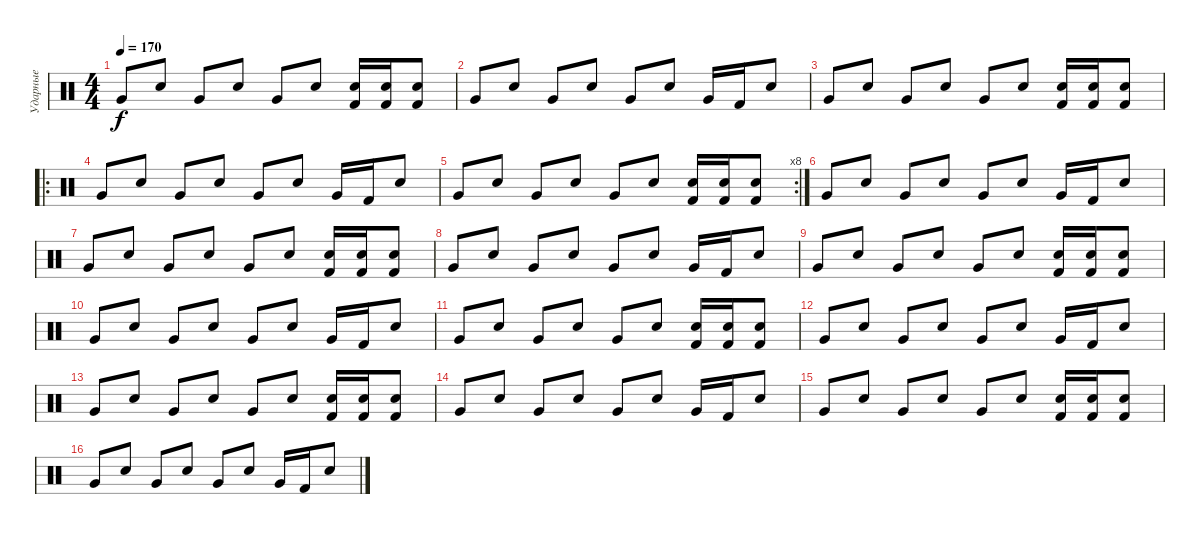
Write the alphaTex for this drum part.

\track ("Ударные" "Ударные") {instrument percussion bank 25}
\staff {score}
\articulation defaults
\ts (4 4)
\tempo 170
\clef neutral
\ks c "Very Low Tom (hit)".8{dy f} "Electric Snare (hit)".8 "Very Low Tom (hit)".8 "Electric Snare (hit)".8 "Very Low Tom (hit)".8 "Electric Snare (hit)".8
("Electric Snare (hit)" "Kick (hit) 2").16 ("Snare (hit) 2" "Kick (hit) 2").16 ("Electric Snare (hit)" "Kick (hit) 2").8 |
"Very Low Tom (hit)".8 "Electric Snare (hit)".8 "Very Low Tom (hit)".8 "Electric Snare (hit)".8 "Very Low Tom (hit)".8 "Electric Snare (hit)".8 "Very Low Tom (hit)".16 "Kick (hit) 2".16 "Electric Snare (hit)".8 |
"Very Low Tom (hit)".8 "Electric Snare (hit)".8 "Very Low Tom (hit)".8 "Electric Snare (hit)".8 "Very Low Tom (hit)".8 "Electric Snare (hit)".8 ("Electric Snare (hit)" "Kick (hit) 2").16 ("Snare (hit) 2" "Kick (hit) 2").16 ("Electric Snare (hit)" "Kick (hit) 2").8 |
\ro "Very Low Tom (hit)".8 "Electric Snare (hit)".8 "Very Low Tom (hit)".8 "Electric Snare (hit)".8 "Very Low Tom (hit)".8 "Electric Snare (hit)".8 "Very Low Tom (hit)".16 "Kick (hit) 2".16 "Electric Snare (hit)".8
|
\rc 8 "Very Low Tom (hit)".8 "Electric Snare (hit)".8 "Very Low Tom (hit)".8 "Electric Snare (hit)".8 "Very Low Tom (hit)".8 "Electric Snare (hit)".8
("Electric Snare (hit)" "Kick (hit) 2").16 ("Snare (hit) 2" "Kick (hit) 2").16 ("Electric Snare (hit)" "Kick (hit) 2").8 |
"Very Low Tom (hit)".8 "Electric Snare (hit)".8 "Very Low Tom (hit)".8 "Electric Snare (hit)".8 "Very Low Tom (hit)".8 "Electric Snare (hit)".8 "Very Low Tom (hit)".16 "Kick (hit) 2".16 "Electric Snare (hit)".8 |
"Very Low Tom (hit)".8 "Electric Snare (hit)".8 "Very Low Tom (hit)".8 "Electric Snare (hit)".8 "Very Low Tom (hit)".8 "Electric Snare (hit)".8 ("Electric Snare (hit)" "Kick (hit) 2").16 ("Snare (hit) 2" "Kick (hit) 2").16 ("Electric Snare (hit)" "Kick (hit) 2").8 |
"Very Low Tom (hit)".8 "Electric Snare (hit)".8 "Very Low Tom (hit)".8 "Electric Snare (hit)".8 "Very Low Tom (hit)".8 "Electric Snare (hit)".8 "Very Low Tom (hit)".16 "Kick (hit) 2".16 "Electric Snare (hit)".8 |
"Very Low Tom (hit)".8 "Electric Snare (hit)".8 "Very Low Tom (hit)".8 "Electric Snare (hit)".8 "Very Low Tom (hit)".8 "Electric Snare (hit)".8 ("Electric Snare (hit)" "Kick (hit) 2").16 ("Snare (hit) 2" "Kick (hit) 2").16 ("Electric Snare (hit)" "Kick (hit) 2").8 |
"Very Low Tom (hit)".8 "Electric Snare (hit)".8 "Very Low Tom (hit)".8 "Electric Snare (hit)".8 "Very Low Tom (hit)".8 "Electric Snare (hit)".8 "Very Low Tom (hit)".16 "Kick (hit) 2".16 "Electric Snare (hit)".8 |
"Very Low Tom (hit)".8 "Electric Snare (hit)".8 "Very Low Tom (hit)".8 "Electric Snare (hit)".8 "Very Low Tom (hit)".8 "Electric Snare (hit)".8 ("Electric Snare (hit)" "Kick (hit) 2").16 ("Snare (hit) 2" "Kick (hit) 2").16 ("Electric Snare (hit)" "Kick (hit) 2").8 |
"Very Low Tom (hit)".8 "Electric Snare (hit)".8 "Very Low Tom (hit)".8 "Electric Snare (hit)".8 "Very Low Tom (hit)".8 "Electric Snare (hit)".8 "Very Low Tom (hit)".16 "Kick (hit) 2".16 "Electric Snare (hit)".8 |
"Very Low Tom (hit)".8 "Electric Snare (hit)".8 "Very Low Tom (hit)".8 "Electric Snare (hit)".8 "Very Low Tom (hit)".8 "Electric Snare (hit)".8 ("Electric Snare (hit)" "Kick (hit) 2").16 ("Snare (hit) 2" "Kick (hit) 2").16 ("Electric Snare (hit)" "Kick (hit) 2").8 |
"Very Low Tom (hit)".8 "Electric Snare (hit)".8 "Very Low Tom (hit)".8 "Electric Snare (hit)".8 "Very Low Tom (hit)".8 "Electric Snare (hit)".8 "Very Low Tom (hit)".16 "Kick (hit) 2".16 "Electric Snare (hit)".8 |
"Very Low Tom (hit)".8 "Electric Snare (hit)".8 "Very Low Tom (hit)".8 "Electric Snare (hit)".8 "Very Low Tom (hit)".8 "Electric Snare (hit)".8 ("Electric Snare (hit)" "Kick (hit) 2").16 ("Snare (hit) 2" "Kick (hit) 2").16 ("Electric Snare (hit)" "Kick (hit) 2").8 |
"Very Low Tom (hit)".8 "Electric Snare (hit)".8 "Very Low Tom (hit)".8 "Electric Snare (hit)".8 "Very Low Tom (hit)".8 "Electric Snare (hit)".8 "Very Low Tom (hit)".16 "Kick (hit) 2".16 "Electric Snare (hit)".8
